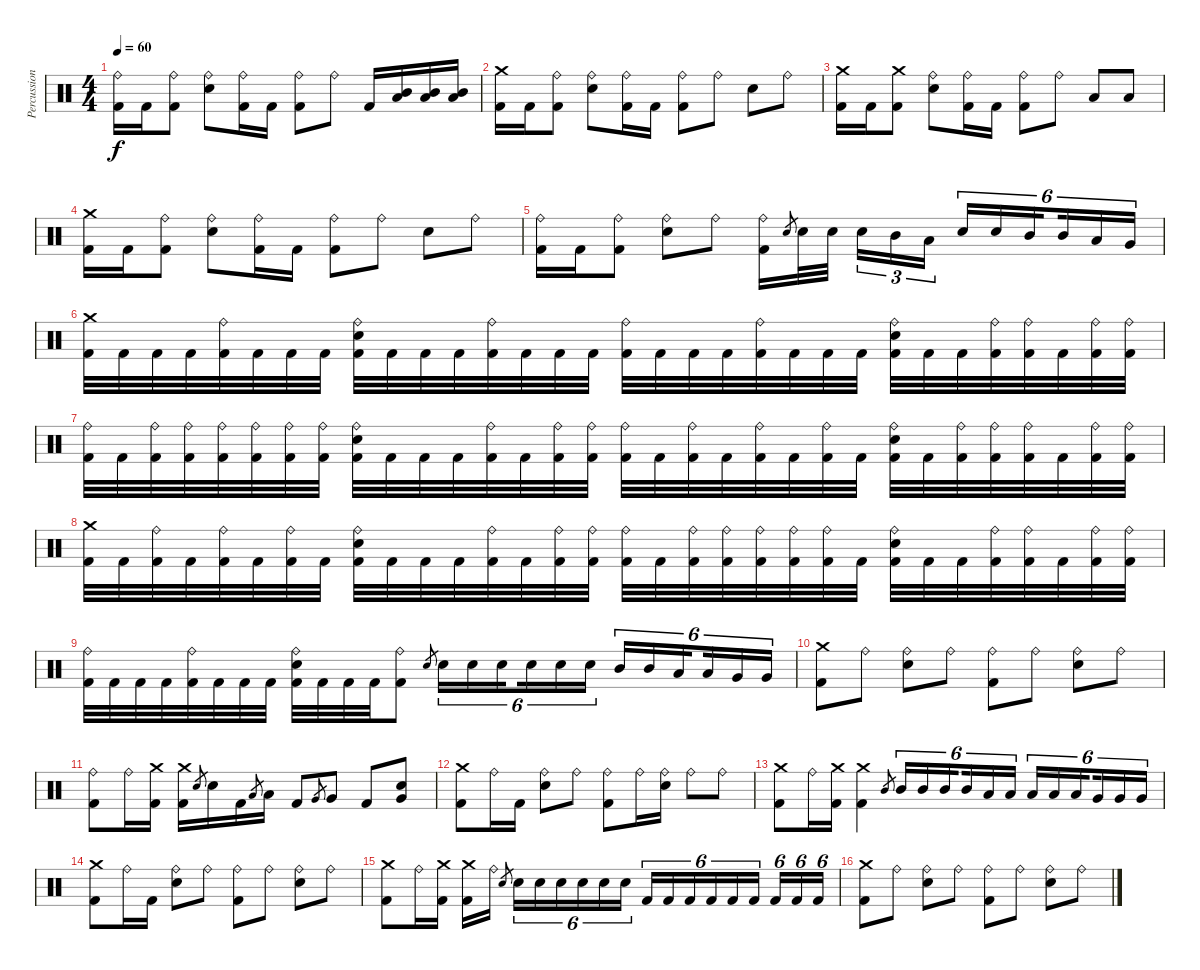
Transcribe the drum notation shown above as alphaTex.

\track ("Percussion" "Percussion") {instrument percussion}
\staff {score}
\articulation defaults
\ts (4 4)
\tempo 60
\clef neutral
\ks c
("Ride (bell)" "Kick (hit) 2").16{dy f} "Kick (hit) 2".16 ("Ride (bell)" "Kick (hit) 2").8 ("Ride (bell)" "Snare (hit) 2").8 ("Ride (bell)" "Kick (hit) 2").16 "Kick (hit) 2".16 ("Ride (bell)" "Kick (hit) 2").8 "Ride (bell)".8 "Kick (hit) 2".16 ("Mid Tom (hit)" "Low Tom (hit)").16 ("Mid Tom (hit)" "Low Tom (hit)").16 ("Mid Tom (hit)" "Low Tom (hit)").16 |
("Crash medium (hit)" "Kick (hit) 2").16 "Kick (hit) 2".16 ("Ride (bell)" "Kick (hit) 2").8 ("Ride (bell)" "Snare (hit) 2").8 ("Ride (bell)" "Kick (hit) 2").16 "Kick (hit) 2".16 ("Ride (bell)" "Kick (hit) 2").8 "Ride (bell)".8 "Snare (hit) 2".8 "Ride (bell)".8 |
("Crash medium (hit)" "Kick (hit) 2").16 "Kick (hit) 2".16 ("Crash medium (hit)" "Kick (hit) 2").8 ("Ride (bell)" "Snare (hit) 2").8 ("Ride (bell)" "Kick (hit) 2").16 "Kick (hit) 2".16 ("Ride (bell)" "Kick (hit) 2").8 "Ride (bell)".8 "Low Tom (hit)".8 "Low Tom (hit)".8 |
("Crash medium (hit)" "Kick (hit) 2").16 "Kick (hit) 2".16 ("Ride (bell)" "Kick (hit) 2").8 ("Ride (bell)" "Snare (hit) 2").8 ("Ride (bell)" "Kick (hit) 2").16 "Kick (hit) 2".16 ("Ride (bell)" "Kick (hit) 2").8 "Ride (bell)".8 "Snare (hit) 2".8 "Ride (bell)".8 |
("Ride (bell)" "Kick (hit) 2").16 "Kick (hit) 2".16 ("Ride (bell)" "Kick (hit) 2").8 ("Ride (bell)" "Snare (hit) 2").8 "Ride (bell)".8 ("Ride (bell)" "Kick (hit) 2").16 "Snare (hit) 2".8{gr} "Snare (hit) 2".32 "Snare (hit) 2".32{beam splitsecondary} "Snare (hit) 2".16{tu (3 2)} "Mid Tom (hit)".16{tu (3 2)} "Low Tom (hit)".16{tu (3 2)} "Snare (hit) 2".16{tu (6 4)} "Snare (hit) 2".16{tu (6 4)} "Mid Tom (hit)".16{tu (6 4) beam splitsecondary} "Mid Tom (hit)".16{tu (6 4)} "Low Tom (hit)".16{tu (6 4)} "Very Low Tom (hit)".16{tu (6 4)} |
("Crash medium (hit)" "Kick (hit) 2").32 "Kick (hit) 2".32 "Kick (hit) 2".32 "Kick (hit) 2".32 ("Ride (bell)" "Kick (hit) 2").32 "Kick (hit) 2".32 "Kick (hit) 2".32 "Kick (hit) 2".32 ("Ride (bell)" "Snare (hit) 2" "Kick (hit) 2").32 "Kick (hit) 2".32 "Kick (hit) 2".32 "Kick (hit) 2".32 ("Ride (bell)" "Kick (hit) 2").32 "Kick (hit) 2".32 "Kick (hit) 2".32 "Kick (hit) 2".32 ("Ride (bell)" "Kick (hit) 2").32 "Kick (hit) 2".32 "Kick (hit) 2".32 "Kick (hit) 2".32 ("Ride (bell)" "Kick (hit) 2").32 "Kick (hit) 2".32 "Kick (hit) 2".32 "Kick (hit) 2".32 ("Ride (bell)" "Snare (hit) 2" "Kick (hit) 2").32 "Kick (hit) 2".32 "Kick (hit) 2".32 ("Ride (bell)" "Kick (hit) 2").32 ("Ride (bell)" "Kick (hit) 2").32 "Kick (hit) 2".32 ("Ride (bell)" "Kick (hit) 2").32 ("Ride (bell)" "Kick (hit) 2").32 |
("Ride (bell)" "Kick (hit) 2").32 "Kick (hit) 2".32 ("Ride (bell)" "Kick (hit) 2").32 ("Ride (bell)" "Kick (hit) 2").32 ("Ride (bell)" "Kick (hit) 2").32 ("Ride (bell)" "Kick (hit) 2").32 ("Ride (bell)" "Kick (hit) 2").32 ("Ride (bell)" "Kick (hit) 2").32 ("Ride (bell)" "Snare (hit) 2" "Kick (hit) 2").32 "Kick (hit) 2".32 "Kick (hit) 2".32 "Kick (hit) 2".32 ("Ride (bell)" "Kick (hit) 2").32 "Kick (hit) 2".32 ("Ride (bell)" "Kick (hit) 2").32 ("Ride (bell)" "Kick (hit) 2").32 ("Ride (bell)" "Kick (hit) 2").32 "Kick (hit) 2".32 ("Ride (bell)" "Kick (hit) 2").32 "Kick (hit) 2".32 ("Ride (bell)" "Kick (hit) 2").32 "Kick (hit) 2".32 ("Ride (bell)" "Kick (hit) 2").32 "Kick (hit) 2".32 ("Ride (bell)" "Snare (hit) 2" "Kick (hit) 2").32 "Kick (hit) 2".32 ("Ride (bell)" "Kick (hit) 2").32 ("Ride (bell)" "Kick (hit) 2").32 ("Ride (bell)" "Kick (hit) 2").32 "Kick (hit) 2".32 ("Ride (bell)" "Kick (hit) 2").32 ("Ride (bell)" "Kick (hit) 2").32 |
("Crash medium (hit)" "Kick (hit) 2").32 "Kick (hit) 2".32 ("Ride (bell)" "Kick (hit) 2").32 "Kick (hit) 2".32 ("Ride (bell)" "Kick (hit) 2").32 "Kick (hit) 2".32 ("Ride (bell)" "Kick (hit) 2").32 "Kick (hit) 2".32 ("Ride (bell)" "Snare (hit) 2" "Kick (hit) 2").32 "Kick (hit) 2".32 "Kick (hit) 2".32 "Kick (hit) 2".32 ("Ride (bell)" "Kick (hit) 2").32 "Kick (hit) 2".32 ("Ride (bell)" "Kick (hit) 2").32 ("Ride (bell)" "Kick (hit) 2").32 ("Ride (bell)" "Kick (hit) 2").32 "Kick (hit) 2".32 ("Ride (bell)" "Kick (hit) 2").32 ("Ride (bell)" "Kick (hit) 2").32 ("Ride (bell)" "Kick (hit) 2").32 ("Ride (bell)" "Kick (hit) 2").32 ("Ride (bell)" "Kick (hit) 2").32 "Kick (hit) 2".32 ("Ride (bell)" "Snare (hit) 2" "Kick (hit) 2").32 "Kick (hit) 2".32 "Kick (hit) 2".32 ("Ride (bell)" "Kick (hit) 2").32 ("Ride (bell)" "Kick (hit) 2").32 "Kick (hit) 2".32 ("Ride (bell)" "Kick (hit) 2").32 ("Ride (bell)" "Kick (hit) 2").32 |
("Ride (bell)" "Kick (hit) 2").32 "Kick (hit) 2".32 "Kick (hit) 2".32 "Kick (hit) 2".32 ("Ride (bell)" "Kick (hit) 2").32 "Kick (hit) 2".32 "Kick (hit) 2".32 "Kick (hit) 2".32 ("Ride (bell)" "Snare (hit) 2" "Kick (hit) 2").32 "Kick (hit) 2".32 "Kick (hit) 2".32 "Kick (hit) 2".32 ("Ride (bell)" "Kick (hit) 2").8 "Snare (hit) 2".8{gr} "Snare (hit) 2".16{tu (6 4)} "Snare (hit) 2".16{tu (6 4)} "Snare (hit) 2".16{tu (6 4) beam splitsecondary} "Snare (hit) 2".16{tu (6 4)} "Snare (hit) 2".16{tu (6 4)} "Snare (hit) 2".16{tu (6 4)} "Mid Tom (hit)".16{tu (6 4)} "Mid Tom (hit)".16{tu (6 4)} "Low Tom (hit)".16{tu (6 4) beam splitsecondary} "Low Tom (hit)".16{tu (6 4)} "Very Low Tom (hit)".16{tu (6 4)} "Very Low Tom (hit)".16{tu (6 4)} |
("Crash medium (hit)" "Kick (hit) 2").8 "Ride (bell)".8 ("Ride (bell)" "Snare (hit) 2").8 "Ride (bell)".8 ("Ride (bell)" "Kick (hit) 2").8 "Ride (bell)".8 ("Ride (bell)" "Snare (hit) 2").8 "Ride (bell)".8 |
("Ride (bell)" "Kick (hit) 2").8 "Ride (bell)".16 ("Crash medium (hit)" "Kick (hit) 2").16 ("Crash medium (hit)" "Kick (hit) 2").16 "Snare (hit) 2".8{gr} "Snare (hit) 2".16 "Kick (hit) 2".16 "Low Tom (hit)".8{gr} "Low Tom (hit)".16 "Kick (hit) 2".8 "Very Low Tom (hit)".8{gr} "Very Low Tom (hit)".8 "Kick (hit) 2".8 ("Very Low Tom (hit)" "Snare (hit) 2").8 |
("Crash medium (hit)" "Kick (hit) 2").8 "Ride (bell)".16 "Kick (hit) 2".16 ("Ride (bell)" "Snare (hit) 2").8 "Ride (bell)".8 ("Ride (bell)" "Kick (hit) 2").8 "Ride (bell)".16 ("Ride (bell)" "Snare (hit) 2").16 "Ride (bell)".8 "Ride (bell)".8 |
("Crash medium (hit)" "Kick (hit) 2").8 "Ride (bell)".16 ("Crash medium (hit)" "Kick (hit) 2").16 ("Crash medium (hit)" "Kick (hit) 2").4 "Mid Tom (hit)".8{gr} "Mid Tom (hit)".16{tu (6 4)} "Mid Tom (hit)".16{tu (6 4)} "Mid Tom (hit)".16{tu (6 4) beam splitsecondary} "Mid Tom (hit)".16{tu (6 4)} "Low Tom (hit)".16{tu (6 4)} "Low Tom (hit)".16{tu (6 4)} "Low Tom (hit)".16{tu (6 4)} "Low Tom (hit)".16{tu (6 4)} "Low Tom (hit)".16{tu (6 4) beam splitsecondary} "Very Low Tom (hit)".16{tu (6 4)} "Very Low Tom (hit)".16{tu (6 4)} "Very Low Tom (hit)".16{tu (6 4)} |
("Crash medium (hit)" "Kick (hit) 2").8 "Ride (bell)".16 "Kick (hit) 2".16 ("Ride (bell)" "Snare (hit) 2").8 "Ride (bell)".8 ("Ride (bell)" "Kick (hit) 2").8 "Ride (bell)".8 ("Ride (bell)" "Snare (hit) 2").8 "Ride (bell)".8 |
("Crash medium (hit)" "Kick (hit) 2").8 "Ride (bell)".16 ("Crash medium (hit)" "Kick (hit) 2").16 ("Crash medium (hit)" "Kick (hit) 2").16 "Ride (bell)".16 "Snare (hit) 2".8{gr beam splitsecondary} "Snare (hit) 2".16{tu (6 4)} "Snare (hit) 2".16{tu (6 4)} "Snare (hit) 2".16{tu (6 4)} "Snare (hit) 2".16{tu (6 4)} "Snare (hit) 2".16{tu (6 4)} "Snare (hit) 2".16{tu (6 4) beam splitsecondary} "Kick (hit) 2".16{tu (6 4)} "Kick (hit) 2".16{tu (6 4)} "Kick (hit) 2".16{tu (6 4)} "Kick (hit) 2".16{tu (6 4)} "Kick (hit) 2".16{tu (6 4)} "Kick (hit) 2".16{tu (6 4) beam splitsecondary} "Kick (hit) 2".16{tu (6 4)} "Kick (hit) 2".16{tu (6 4)} "Kick (hit) 2".16{tu (6 4)} |
("Crash medium (hit)" "Kick (hit) 2").8 "Ride (bell)".8 ("Ride (bell)" "Snare (hit) 2").8 "Ride (bell)".8 ("Ride (bell)" "Kick (hit) 2").8 "Ride (bell)".8 ("Ride (bell)" "Snare (hit) 2").8 "Ride (bell)".8
